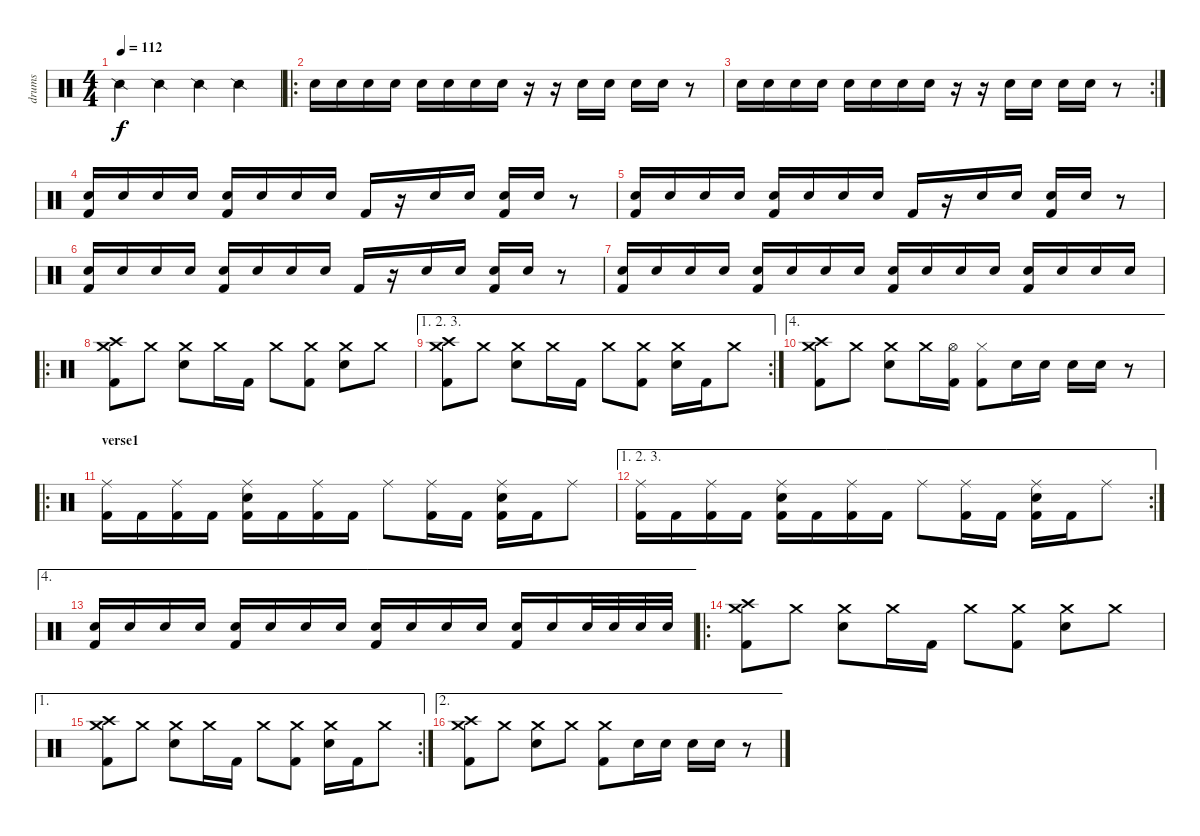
\track ("drums" "drums") {instrument percussion}
\staff {score}
\articulation defaults
\ts (4 4)
\tempo 112
\clef neutral
\ks c "Snare (side stick) 2".4{dy f} "Snare (side stick) 2".4 "Snare (side stick) 2".4 "Snare (side stick) 2".4
|
\ro "Electric Snare (hit)".16 "Electric Snare (hit)".16 "Electric Snare (hit)".16 "Electric Snare (hit)".16 "Electric Snare (hit)".16 "Electric Snare (hit)".16 "Electric Snare (hit)".16 "Electric Snare (hit)".16
r.16 r.16 "Electric Snare (hit)".16 "Electric Snare (hit)".16 "Electric Snare (hit)".16 "Electric Snare (hit)".16 r.8 |
\rc 2 "Electric Snare (hit)".16 "Electric Snare (hit)".16 "Electric Snare (hit)".16 "Electric Snare (hit)".16 "Electric Snare (hit)".16 "Electric Snare (hit)".16 "Electric Snare (hit)".16 "Electric Snare (hit)".16
r.16 r.16 "Electric Snare (hit)".16 "Electric Snare (hit)".16 "Electric Snare (hit)".16 "Electric Snare (hit)".16 r.8 |
("Electric Snare (hit)" "Kick (hit) 2").16 "Electric Snare (hit)".16 "Electric Snare (hit)".16 "Electric Snare (hit)".16 ("Electric Snare (hit)" "Kick (hit) 2").16 "Electric Snare (hit)".16 "Electric Snare (hit)".16 "Electric Snare (hit)".16 "Kick (hit) 2".16 r.16 "Electric Snare (hit)".16 "Electric Snare (hit)".16 ("Electric Snare (hit)" "Kick (hit) 2").16 "Electric Snare (hit)".16 r.8 |
("Electric Snare (hit)" "Kick (hit) 2").16 "Electric Snare (hit)".16 "Electric Snare (hit)".16 "Electric Snare (hit)".16 ("Electric Snare (hit)" "Kick (hit) 2").16 "Electric Snare (hit)".16 "Electric Snare (hit)".16 "Electric Snare (hit)".16 "Kick (hit) 2".16 r.16 "Electric Snare (hit)".16 "Electric Snare (hit)".16 ("Electric Snare (hit)" "Kick (hit) 2").16 "Electric Snare (hit)".16 r.8 |
("Electric Snare (hit)" "Kick (hit) 2").16 "Electric Snare (hit)".16 "Electric Snare (hit)".16 "Electric Snare (hit)".16 ("Electric Snare (hit)" "Kick (hit) 2").16 "Electric Snare (hit)".16 "Electric Snare (hit)".16 "Electric Snare (hit)".16 "Kick (hit) 2".16 r.16 "Electric Snare (hit)".16 "Electric Snare (hit)".16 ("Electric Snare (hit)" "Kick (hit) 2").16 "Electric Snare (hit)".16 r.8 |
("Electric Snare (hit)" "Kick (hit) 2").16 "Electric Snare (hit)".16 "Electric Snare (hit)".16 "Electric Snare (hit)".16 ("Electric Snare (hit)" "Kick (hit) 2").16 "Electric Snare (hit)".16 "Electric Snare (hit)".16 "Electric Snare (hit)".16 ("Electric Snare (hit)" "Kick (hit) 2").16 "Electric Snare (hit)".16 "Electric Snare (hit)".16 "Electric Snare (hit)".16 ("Electric Snare (hit)" "Kick (hit) 2").16 "Electric Snare (hit)".16 "Electric Snare (hit)".16 "Electric Snare (hit)".16 |
\ro
("Crash medium (hit)" "Crash high (hit)" "Kick (hit) 2").8 "Crash medium (hit)".8 ("Crash medium (hit)" "Electric Snare (hit)").8 "Crash medium (hit)".16 "Kick (hit) 2".16 "Crash medium (hit)".8 ("Crash medium (hit)" "Kick (hit) 2").8 ("Crash medium (hit)" "Electric Snare (hit)").8 "Crash medium (hit)".8 |
\ae (1 2 3)
\rc 2
("Crash medium (hit)" "Crash high (hit)" "Kick (hit) 2").8 "Crash medium (hit)".8 ("Crash medium (hit)" "Electric Snare (hit)").8 "Crash medium (hit)".16 "Kick (hit) 2".16 "Crash medium (hit)".8 ("Crash medium (hit)" "Kick (hit) 2").8 ("Crash medium (hit)" "Electric Snare (hit)").16 "Kick (hit) 2".16 "Crash medium (hit)".8 |
\ae 4
("Crash medium (hit)" "Crash high (hit)" "Kick (hit) 2").8 "Crash medium (hit)".8 ("Crash medium (hit)" "Electric Snare (hit)").8 "Crash medium (hit)".16 ("Hi-Hat (open)" "Kick (hit) 2").16 ("Hi-Hat (closed)" "Kick (hit) 2").8 "Electric Snare (hit)".16 "Electric Snare (hit)".16 "Electric Snare (hit)".16 "Electric Snare (hit)".16 r.8 |
\ro
\section ("" "verse1")
("Ride (middle)" "Kick (hit) 2").16 "Kick (hit) 2".16 ("Ride (middle)" "Kick (hit) 2").16 "Kick (hit) 2".16 ("Ride (middle)" "Electric Snare (hit)" "Kick (hit) 2").16 "Kick (hit) 2".16 ("Ride (middle)" "Kick (hit) 2").16 "Kick (hit) 2".16 "Ride (middle)".8 ("Ride (middle)" "Kick (hit) 2").16 "Kick (hit) 2".16 ("Ride (middle)" "Electric Snare (hit)" "Kick (hit) 2").16 "Kick (hit) 2".16 "Ride (middle)".8 |
\ae (1 2 3)
\rc 2
("Ride (middle)" "Kick (hit) 2").16 "Kick (hit) 2".16 ("Ride (middle)" "Kick (hit) 2").16 "Kick (hit) 2".16 ("Ride (middle)" "Electric Snare (hit)" "Kick (hit) 2").16 "Kick (hit) 2".16 ("Ride (middle)" "Kick (hit) 2").16 "Kick (hit) 2".16 "Ride (middle)".8 ("Ride (middle)" "Kick (hit) 2").16 "Kick (hit) 2".16 ("Ride (middle)" "Electric Snare (hit)" "Kick (hit) 2").16 "Kick (hit) 2".16 "Ride (middle)".8 |
\ae 4
("Electric Snare (hit)" "Kick (hit) 2").16 "Electric Snare (hit)".16 "Electric Snare (hit)".16 "Electric Snare (hit)".16 ("Electric Snare (hit)" "Kick (hit) 2").16 "Electric Snare (hit)".16 "Electric Snare (hit)".16 "Electric Snare (hit)".16 ("Electric Snare (hit)" "Kick (hit) 2").16 "Electric Snare (hit)".16 "Electric Snare (hit)".16 "Electric Snare (hit)".16 ("Electric Snare (hit)" "Kick (hit) 2").16 "Electric Snare (hit)".16 "Electric Snare (hit)".32 "Electric Snare (hit)".32 "Electric Snare (hit)".32 "Electric Snare (hit)".32 |
\ro
("Crash medium (hit)" "Crash high (hit)" "Kick (hit) 2").8 "Crash medium (hit)".8 ("Crash medium (hit)" "Electric Snare (hit)").8 "Crash medium (hit)".16 "Kick (hit) 2".16 "Crash medium (hit)".8 ("Crash medium (hit)" "Kick (hit) 2").8 ("Crash medium (hit)" "Electric Snare (hit)").8 "Crash medium (hit)".8 |
\ae 1
\rc 2
("Crash medium (hit)" "Crash high (hit)" "Kick (hit) 2").8 "Crash medium (hit)".8 ("Crash medium (hit)" "Electric Snare (hit)").8 "Crash medium (hit)".16 "Kick (hit) 2".16 "Crash medium (hit)".8 ("Crash medium (hit)" "Kick (hit) 2").8 ("Crash medium (hit)" "Electric Snare (hit)").16 "Kick (hit) 2".16 "Crash medium (hit)".8 |
\ae 2
("Crash medium (hit)" "Crash high (hit)" "Kick (hit) 2").8 "Crash medium (hit)".8 ("Crash medium (hit)" "Electric Snare (hit)").8 "Crash medium (hit)".8 ("Crash medium (hit)" "Kick (hit) 2").8 "Electric Snare (hit)".16 "Electric Snare (hit)".16 "Electric Snare (hit)".16 "Electric Snare (hit)".16 r.8
